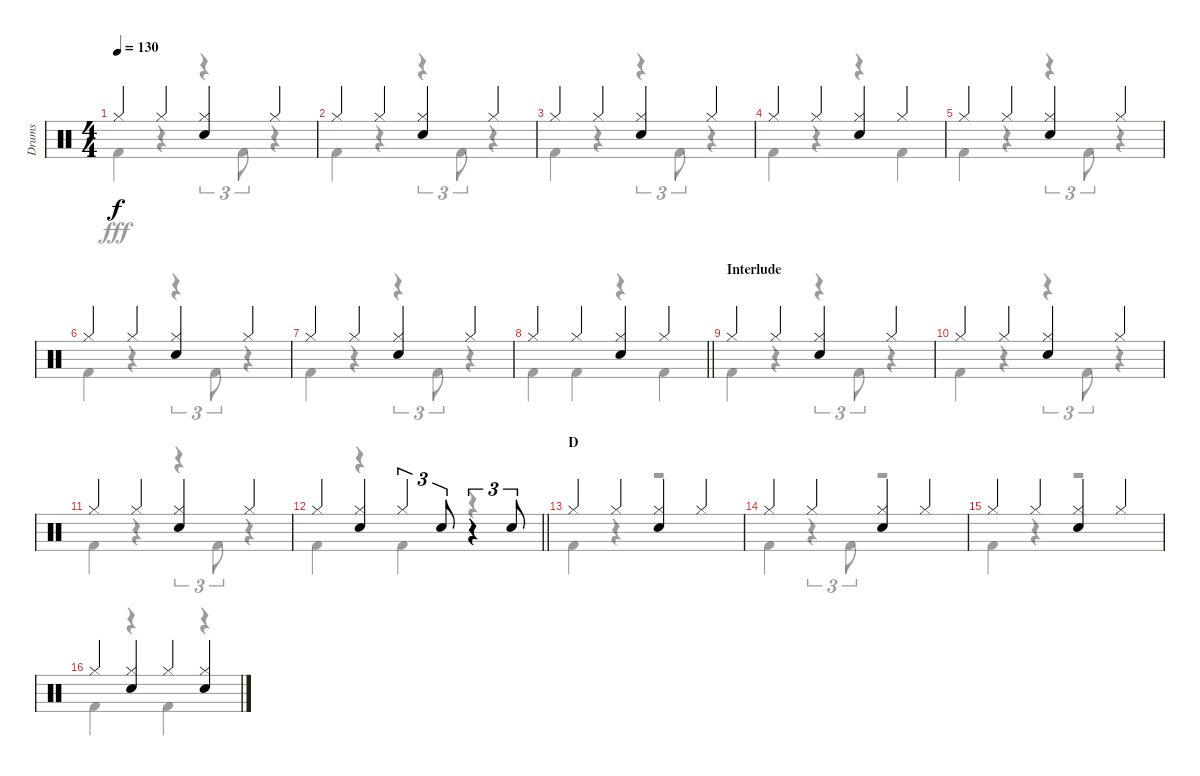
\track ("Drums" "Drums") {instrument percussion}
\staff {score}
\articulation defaults
\voice
\ts (4 4)
\tempo 130
\clef neutral
\ks c "Hi-Hat (closed)".4{dy f} "Hi-Hat (closed)".4
("Hi-Hat (closed)" "Snare (hit) 2").4 "Hi-Hat (closed)".4 |
"Hi-Hat (closed)".4 "Hi-Hat (closed)".4 ("Hi-Hat (closed)" "Snare (hit) 2").4 "Hi-Hat (closed)".4 |
"Hi-Hat (closed)".4 "Hi-Hat (closed)".4 ("Hi-Hat (closed)" "Snare (hit) 2").4 "Hi-Hat (closed)".4 |
"Hi-Hat (closed)".4 "Hi-Hat (closed)".4 ("Hi-Hat (closed)" "Snare (hit) 2").4 "Hi-Hat (closed)".4 |
"Hi-Hat (closed)".4 "Hi-Hat (closed)".4 ("Hi-Hat (closed)" "Snare (hit) 2").4 "Hi-Hat (closed)".4 |
"Hi-Hat (closed)".4 "Hi-Hat (closed)".4 ("Hi-Hat (closed)" "Snare (hit) 2").4 "Hi-Hat (closed)".4 |
"Hi-Hat (closed)".4 "Hi-Hat (closed)".4 ("Hi-Hat (closed)" "Snare (hit) 2").4 "Hi-Hat (closed)".4 |
\barLineRight lightlight "Hi-Hat (closed)".4 "Hi-Hat (closed)".4
("Hi-Hat (closed)" "Snare (hit) 2").4 "Hi-Hat (closed)".4 |
\section ("" "Interlude")
"Hi-Hat (closed)".4 "Hi-Hat (closed)".4 ("Hi-Hat (closed)" "Snare (hit) 2").4 "Hi-Hat (closed)".4 |
"Hi-Hat (closed)".4 "Hi-Hat (closed)".4 ("Hi-Hat (closed)" "Snare (hit) 2").4 "Hi-Hat (closed)".4 |
"Hi-Hat (closed)".4 "Hi-Hat (closed)".4 ("Hi-Hat (closed)" "Snare (hit) 2").4 "Hi-Hat (closed)".4 |
\barLineRight lightlight "Hi-Hat (closed)".4
("Hi-Hat (closed)" "Snare (hit) 2").4 "Hi-Hat (closed)".4{tu (3 2)} "Snare (hit) 2".8{tu (3 2)} r.4{tu (3 2)} "Snare (hit) 2".8{tu (3 2)} |
\section ("" "D")
"Hi-Hat (closed)".4 "Hi-Hat (closed)".4 ("Hi-Hat (closed)" "Snare (hit) 2").4 "Hi-Hat (closed)".4 |
"Hi-Hat (closed)".4 "Hi-Hat (closed)".4 ("Hi-Hat (closed)" "Snare (hit) 2").4 "Hi-Hat (closed)".4 |
"Hi-Hat (closed)".4 "Hi-Hat (closed)".4 ("Hi-Hat (closed)" "Snare (hit) 2").4 "Hi-Hat (closed)".4 |
"Hi-Hat (closed)".4 ("Hi-Hat (closed)" "Snare (hit) 2").4 "Hi-Hat (closed)".4 ("Hi-Hat (closed)" "Snare (hit) 2").4
\voice
\clef neutral
\ottava regular
\simile none
\ks c "Kick (hit) 2".4{dy fff}
r.4 r.4{tu (3 2)} "Kick (hit) 2".8{tu (3 2)} r.4 |
"Kick (hit) 2".4 r.4 r.4{tu (3 2)} "Kick (hit) 2".8{tu (3 2)} r.4 |
"Kick (hit) 2".4 r.4 r.4{tu (3 2)} "Kick (hit) 2".8{tu (3 2)} r.4 |
"Kick (hit) 2".4 r.4 r.4 "Kick (hit) 2".4 |
"Kick (hit) 2".4 r.4 r.4{tu (3 2)} "Kick (hit) 2".8{tu (3 2)} r.4 |
"Kick (hit) 2".4 r.4 r.4{tu (3 2)} "Kick (hit) 2".8{tu (3 2)} r.4 |
"Kick (hit) 2".4 r.4 r.4{tu (3 2)} "Kick (hit) 2".8{tu (3 2)} r.4 |
\barLineRight lightlight "Kick (hit) 2".4 "Kick (hit) 2".4
r.4 "Kick (hit) 2".4 |
"Kick (hit) 2".4 r.4 r.4{tu (3 2)} "Kick (hit) 2".8{tu (3 2)} r.4 |
"Kick (hit) 2".4 r.4 r.4{tu (3 2)} "Kick (hit) 2".8{tu (3 2)} r.4 |
"Kick (hit) 2".4 r.4 r.4{tu (3 2)} "Kick (hit) 2".8{tu (3 2)} r.4 |
\barLineRight lightlight "Kick (hit) 2".4
r.4 "Kick (hit) 2".4 r.4 |
"Kick (hit) 2".4 r.4 r.2 |
"Kick (hit) 2".4 r.4{tu (3 2)} "Kick (hit) 2".8{tu (3 2)} r.2 |
"Kick (hit) 2".4 r.4 r.2 |
"Kick (hit) 2".4 r.4 "Kick (hit) 2".4 r.4
